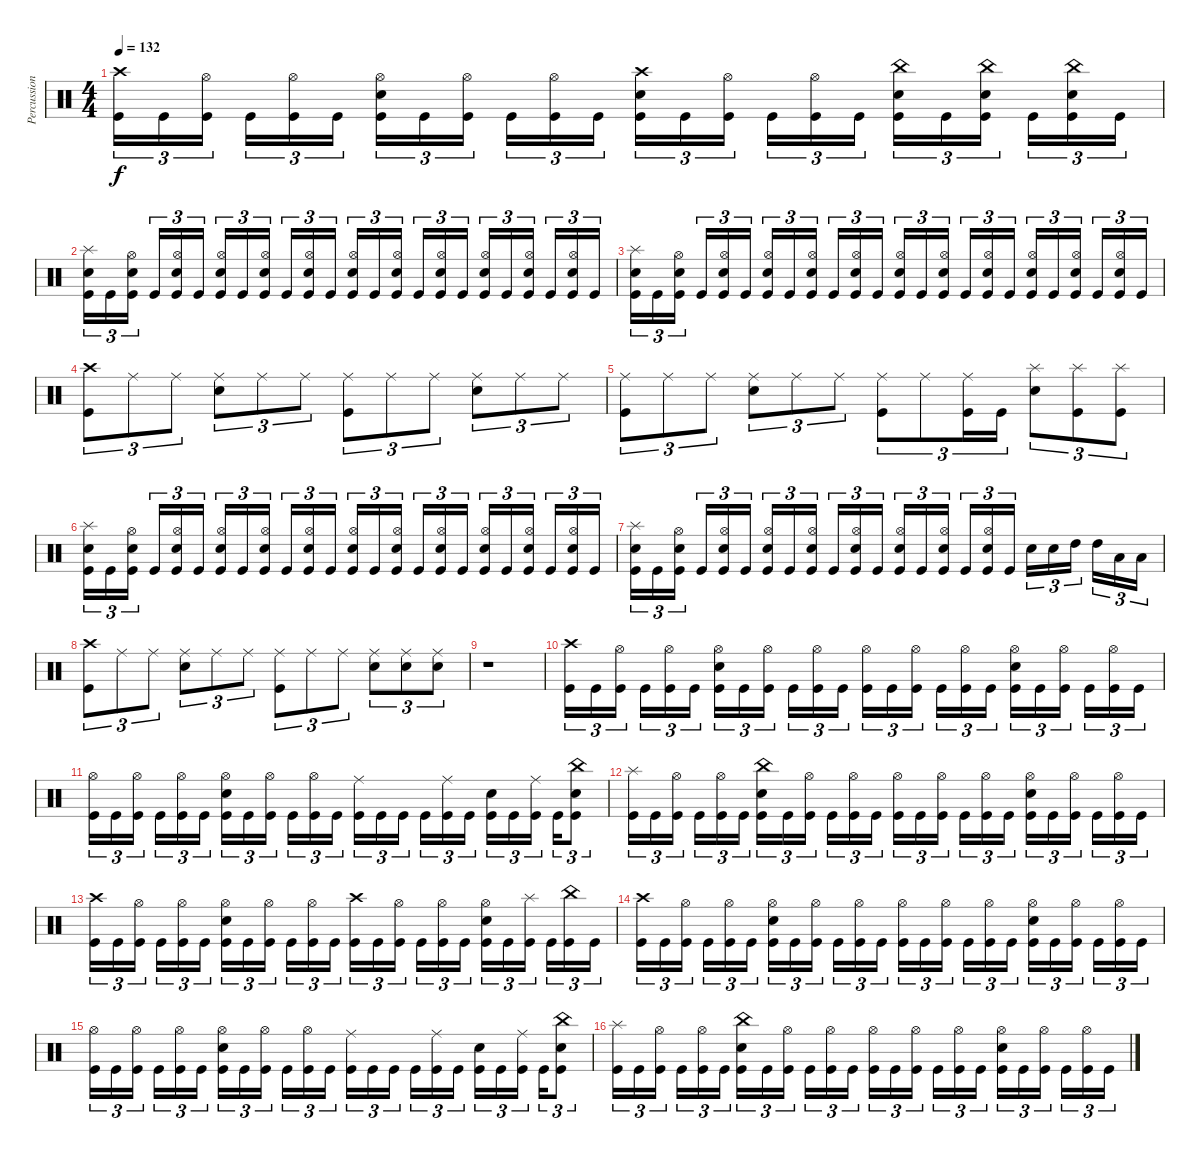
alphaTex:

\track ("Percussion" "Percussion") {instrument percussion}
\staff {score}
\articulation defaults
\ts (4 4)
\tempo 132
\clef neutral
\ks c
("Kick (hit)" "Crash high (hit)").16{tu (3 2) dy f} "Kick (hit)".16{tu (3 2)} ("Kick (hit)" "Hi-Hat (open)").16{tu (3 2) beam splitsecondary} "Kick (hit)".16{tu (3 2)} ("Kick (hit)" "Hi-Hat (open)").16{tu (3 2)} "Kick (hit)".16{tu (3 2)} ("Electric Snare (hit)" "Kick (hit)" "Hi-Hat (open)").16{tu (3 2)} "Kick (hit)".16{tu (3 2)} ("Hi-Hat (open)" "Kick (hit)").16{tu (3 2) beam splitsecondary} "Kick (hit)".16{tu (3 2)} ("Kick (hit)" "Hi-Hat (open)").16{tu (3 2)} "Kick (hit)".16{tu (3 2)} ("Electric Snare (hit)" "Crash high (hit)" "Kick (hit)").16{tu (3 2)} "Kick (hit)".16{tu (3 2)} ("Kick (hit)" "Hi-Hat (open)").16{tu (3 2) beam splitsecondary} "Kick (hit)".16{tu (3 2)} ("Kick (hit)" "Hi-Hat (open)").16{tu (3 2)} "Kick (hit)".16{tu (3 2)} ("Electric Snare (hit)" "Kick (hit)" "China (hit)").16{tu (3 2)} "Kick (hit)".16{tu (3 2)} ("Electric Snare (hit)" "Kick (hit)" "China (hit)").16{tu (3 2) beam splitsecondary} "Kick (hit)".16{tu (3 2)} ("Electric Snare (hit)" "Kick (hit)" "China (hit)").16{tu (3 2)} "Kick (hit)".16{tu (3 2)} |
("Electric Snare (hit)" "Kick (hit)" "Splash (hit)").16{tu (3 2)} "Kick (hit)".16{tu (3 2)} ("Electric Snare (hit)" "Kick (hit)" "Hi-Hat (open)").16{tu (3 2) beam splitsecondary} "Kick (hit)".16{tu (3 2)} ("Electric Snare (hit)" "Kick (hit)" "Hi-Hat (open)").16{tu (3 2)} "Kick (hit)".16{tu (3 2)} ("Electric Snare (hit)" "Kick (hit)" "Hi-Hat (open)").16{tu (3 2)} "Kick (hit)".16{tu (3 2)} ("Electric Snare (hit)" "Kick (hit)" "Hi-Hat (open)").16{tu (3 2) beam splitsecondary} "Kick (hit)".16{tu (3 2)} ("Electric Snare (hit)" "Kick (hit)" "Hi-Hat (open)").16{tu (3 2)} "Kick (hit)".16{tu (3 2)} ("Electric Snare (hit)" "Kick (hit)" "Hi-Hat (open)").16{tu (3 2)} "Kick (hit)".16{tu (3 2)} ("Electric Snare (hit)" "Kick (hit)" "Hi-Hat (open)").16{tu (3 2) beam splitsecondary} "Kick (hit)".16{tu (3 2)} ("Electric Snare (hit)" "Kick (hit)" "Hi-Hat (open)").16{tu (3 2)} "Kick (hit)".16{tu (3 2)} ("Electric Snare (hit)" "Kick (hit)" "Hi-Hat (open)").16{tu (3 2)} "Kick (hit)".16{tu (3 2)} ("Electric Snare (hit)" "Kick (hit)" "Hi-Hat (open)").16{tu (3 2) beam splitsecondary} "Kick (hit)".16{tu (3 2)} ("Electric Snare (hit)" "Kick (hit)" "Hi-Hat (open)").16{tu (3 2)} "Kick (hit)".16{tu (3 2)} |
("Electric Snare (hit)" "Kick (hit)" "Splash (hit)").16{tu (3 2)} "Kick (hit)".16{tu (3 2)} ("Electric Snare (hit)" "Kick (hit)" "Hi-Hat (open)").16{tu (3 2) beam splitsecondary} "Kick (hit)".16{tu (3 2)} ("Electric Snare (hit)" "Kick (hit)" "Hi-Hat (open)").16{tu (3 2)} "Kick (hit)".16{tu (3 2)} ("Electric Snare (hit)" "Kick (hit)" "Hi-Hat (open)").16{tu (3 2)} "Kick (hit)".16{tu (3 2)} ("Electric Snare (hit)" "Kick (hit)" "Hi-Hat (open)").16{tu (3 2) beam splitsecondary} "Kick (hit)".16{tu (3 2)} ("Electric Snare (hit)" "Kick (hit)" "Hi-Hat (open)").16{tu (3 2)} "Kick (hit)".16{tu (3 2)} ("Electric Snare (hit)" "Kick (hit)" "Hi-Hat (open)").16{tu (3 2)} "Kick (hit)".16{tu (3 2)} ("Electric Snare (hit)" "Kick (hit)" "Hi-Hat (open)").16{tu (3 2) beam splitsecondary} "Kick (hit)".16{tu (3 2)} ("Electric Snare (hit)" "Kick (hit)" "Hi-Hat (open)").16{tu (3 2)} "Kick (hit)".16{tu (3 2)} ("Electric Snare (hit)" "Kick (hit)" "Hi-Hat (open)").16{tu (3 2)} "Kick (hit)".16{tu (3 2)} ("Electric Snare (hit)" "Kick (hit)" "Hi-Hat (open)").16{tu (3 2) beam splitsecondary} "Kick (hit)".16{tu (3 2)} ("Electric Snare (hit)" "Kick (hit)" "Hi-Hat (open)").16{tu (3 2)} "Kick (hit)".16{tu (3 2)} |
("Kick (hit)" "Crash high (hit)").8{tu (3 2)} "Ride (middle)".8{tu (3 2)} "Ride (middle)".8{tu (3 2)} ("Electric Snare (hit)" "Ride (middle)").8{tu (3 2)} "Ride (middle)".8{tu (3 2)} "Ride (middle)".8{tu (3 2)} ("Kick (hit)" "Ride (middle)").8{tu (3 2)} "Ride (middle)".8{tu (3 2)} "Ride (middle)".8{tu (3 2)} ("Electric Snare (hit)" "Ride (middle)").8{tu (3 2)} "Ride (middle)".8{tu (3 2)} "Ride (middle)".8{tu (3 2)} |
("Kick (hit)" "Ride (middle)").8{tu (3 2)} "Ride (middle)".8{tu (3 2)} "Ride (middle)".8{tu (3 2)} ("Electric Snare (hit)" "Ride (middle)").8{tu (3 2)} "Ride (middle)".8{tu (3 2)} "Ride (middle)".8{tu (3 2)} ("Kick (hit)" "Ride (middle)").8{tu (3 2)} "Ride (middle)".8{tu (3 2)} ("Kick (hit)" "Ride (middle)").16{tu (3 2)} "Kick (hit)".16{tu (3 2)} ("Electric Snare (hit)" "Splash (hit)").8{tu (3 2)} ("Kick (hit)" "Splash (hit)").8{tu (3 2)} ("Kick (hit)" "Splash (hit)").8{tu (3 2)} |
("Electric Snare (hit)" "Kick (hit)" "Splash (hit)").16{tu (3 2)} "Kick (hit)".16{tu (3 2)} ("Electric Snare (hit)" "Kick (hit)" "Hi-Hat (open)").16{tu (3 2) beam splitsecondary} "Kick (hit)".16{tu (3 2)} ("Electric Snare (hit)" "Kick (hit)" "Hi-Hat (open)").16{tu (3 2)} "Kick (hit)".16{tu (3 2)} ("Electric Snare (hit)" "Kick (hit)" "Hi-Hat (open)").16{tu (3 2)} "Kick (hit)".16{tu (3 2)} ("Electric Snare (hit)" "Kick (hit)" "Hi-Hat (open)").16{tu (3 2) beam splitsecondary} "Kick (hit)".16{tu (3 2)} ("Electric Snare (hit)" "Kick (hit)" "Hi-Hat (open)").16{tu (3 2)} "Kick (hit)".16{tu (3 2)} ("Electric Snare (hit)" "Kick (hit)" "Hi-Hat (open)").16{tu (3 2)} "Kick (hit)".16{tu (3 2)} ("Electric Snare (hit)" "Kick (hit)" "Hi-Hat (open)").16{tu (3 2) beam splitsecondary} "Kick (hit)".16{tu (3 2)} ("Electric Snare (hit)" "Kick (hit)" "Hi-Hat (open)").16{tu (3 2)} "Kick (hit)".16{tu (3 2)} ("Electric Snare (hit)" "Kick (hit)" "Hi-Hat (open)").16{tu (3 2)} "Kick (hit)".16{tu (3 2)} ("Electric Snare (hit)" "Kick (hit)" "Hi-Hat (open)").16{tu (3 2) beam splitsecondary} "Kick (hit)".16{tu (3 2)} ("Electric Snare (hit)" "Kick (hit)" "Hi-Hat (open)").16{tu (3 2)} "Kick (hit)".16{tu (3 2)} |
("Electric Snare (hit)" "Kick (hit)" "Splash (hit)").16{tu (3 2)} "Kick (hit)".16{tu (3 2)} ("Electric Snare (hit)" "Kick (hit)" "Hi-Hat (open)").16{tu (3 2) beam splitsecondary} "Kick (hit)".16{tu (3 2)} ("Electric Snare (hit)" "Kick (hit)" "Hi-Hat (open)").16{tu (3 2)} "Kick (hit)".16{tu (3 2)} ("Electric Snare (hit)" "Kick (hit)" "Hi-Hat (open)").16{tu (3 2)} "Kick (hit)".16{tu (3 2)} ("Electric Snare (hit)" "Kick (hit)" "Hi-Hat (open)").16{tu (3 2) beam splitsecondary} "Kick (hit)".16{tu (3 2)} ("Electric Snare (hit)" "Kick (hit)" "Hi-Hat (open)").16{tu (3 2)} "Kick (hit)".16{tu (3 2)} ("Electric Snare (hit)" "Kick (hit)" "Hi-Hat (open)").16{tu (3 2)} "Kick (hit)".16{tu (3 2)} ("Electric Snare (hit)" "Kick (hit)" "Hi-Hat (open)").16{tu (3 2) beam splitsecondary} "Kick (hit)".16{tu (3 2)} ("Electric Snare (hit)" "Kick (hit)" "Hi-Hat (open)").16{tu (3 2)} "Kick (hit)".16{tu (3 2)} "Electric Snare (hit)".16{tu (3 2)} "Electric Snare (hit)".16{tu (3 2)} "High Tom (hit)".16{tu (3 2) beam splitsecondary} "High Tom (hit)".16{tu (3 2)} "Low Tom (hit)".16{tu (3 2)} "Low Tom (hit)".16{tu (3 2)} |
("Kick (hit)" "Crash high (hit)").8{tu (3 2)} "Ride (middle)".8{tu (3 2)} "Ride (middle)".8{tu (3 2)} ("Electric Snare (hit)" "Ride (middle)").8{tu (3 2)} "Ride (middle)".8{tu (3 2)} "Ride (middle)".8{tu (3 2)} ("Kick (hit)" "Ride (middle)").8{tu (3 2)} "Ride (middle)".8{tu (3 2)} "Ride (middle)".8{tu (3 2)} ("Electric Snare (hit)" "Ride (middle)").8{tu (3 2)} ("Electric Snare (hit)" "Ride (middle)").8{tu (3 2)} ("Electric Snare (hit)" "Ride (middle)").8{tu (3 2)} |
r.1 |
("Kick (hit)" "Crash high (hit)").16{tu (3 2)} "Kick (hit)".16{tu (3 2)} ("Kick (hit)" "Hi-Hat (open)").16{tu (3 2) beam splitsecondary} "Kick (hit)".16{tu (3 2)} ("Kick (hit)" "Hi-Hat (open)").16{tu (3 2)} "Kick (hit)".16{tu (3 2)} ("Electric Snare (hit)" "Kick (hit)" "Hi-Hat (open)").16{tu (3 2)} "Kick (hit)".16{tu (3 2)} ("Hi-Hat (open)" "Kick (hit)").16{tu (3 2) beam splitsecondary} "Kick (hit)".16{tu (3 2)} ("Kick (hit)" "Hi-Hat (open)").16{tu (3 2)} "Kick (hit)".16{tu (3 2)} ("Hi-Hat (open)" "Kick (hit)").16{tu (3 2)} "Kick (hit)".16{tu (3 2)} ("Kick (hit)" "Hi-Hat (open)").16{tu (3 2) beam splitsecondary} "Kick (hit)".16{tu (3 2)} ("Kick (hit)" "Hi-Hat (open)").16{tu (3 2)} "Kick (hit)".16{tu (3 2)} ("Electric Snare (hit)" "Kick (hit)" "Hi-Hat (open)").16{tu (3 2)} "Kick (hit)".16{tu (3 2)} ("Kick (hit)" "Hi-Hat (open)").16{tu (3 2) beam splitsecondary} "Kick (hit)".16{tu (3 2)} ("Kick (hit)" "Hi-Hat (open)").16{tu (3 2)} "Kick (hit)".16{tu (3 2)} |
("Kick (hit)" "Hi-Hat (open)").16{tu (3 2)} "Kick (hit)".16{tu (3 2)} ("Kick (hit)" "Hi-Hat (open)").16{tu (3 2) beam splitsecondary} "Kick (hit)".16{tu (3 2)} ("Kick (hit)" "Hi-Hat (open)").16{tu (3 2)} "Kick (hit)".16{tu (3 2)} ("Electric Snare (hit)" "Kick (hit)" "Hi-Hat (open)").16{tu (3 2)} "Kick (hit)".16{tu (3 2)} ("Hi-Hat (open)" "Kick (hit)").16{tu (3 2) beam splitsecondary} "Kick (hit)".16{tu (3 2)} ("Kick (hit)" "Hi-Hat (open)").16{tu (3 2)} "Kick (hit)".16{tu (3 2)} ("Ride (middle)" "Kick (hit)").16{tu (3 2)} "Kick (hit)".16{tu (3 2)} "Kick (hit)".16{tu (3 2) beam splitsecondary} "Kick (hit)".16{tu (3 2)} ("Ride (middle)" "Kick (hit)").16{tu (3 2)} "Kick (hit)".16{tu (3 2)} ("Electric Snare (hit)" "Kick (hit)").16{tu (3 2)} "Kick (hit)".16{tu (3 2)} ("Ride (middle)" "Kick (hit)").16{tu (3 2) beam splitsecondary} "Kick (hit)".16{tu (3 2)} ("Electric Snare (hit)" "China (hit)" "Kick (hit)").8{tu (3 2)} |
("Kick (hit)" "Splash (hit)").16{tu (3 2)} "Kick (hit)".16{tu (3 2)} ("Kick (hit)" "Hi-Hat (open)").16{tu (3 2) beam splitsecondary} "Kick (hit)".16{tu (3 2)} ("Kick (hit)" "Hi-Hat (open)").16{tu (3 2)} "Kick (hit)".16{tu (3 2)} ("Electric Snare (hit)" "Kick (hit)" "China (hit)").16{tu (3 2)} "Kick (hit)".16{tu (3 2)} ("Hi-Hat (open)" "Kick (hit)").16{tu (3 2) beam splitsecondary} "Kick (hit)".16{tu (3 2)} ("Kick (hit)" "Hi-Hat (open)").16{tu (3 2)} "Kick (hit)".16{tu (3 2)} ("Hi-Hat (open)" "Kick (hit)").16{tu (3 2)} "Kick (hit)".16{tu (3 2)} ("Kick (hit)" "Hi-Hat (open)").16{tu (3 2) beam splitsecondary} "Kick (hit)".16{tu (3 2)} ("Kick (hit)" "Hi-Hat (open)").16{tu (3 2)} "Kick (hit)".16{tu (3 2)} ("Electric Snare (hit)" "Kick (hit)" "Hi-Hat (open)").16{tu (3 2)} "Kick (hit)".16{tu (3 2)} ("Kick (hit)" "Hi-Hat (open)").16{tu (3 2) beam splitsecondary} "Kick (hit)".16{tu (3 2)} ("Kick (hit)" "Hi-Hat (open)").16{tu (3 2)} "Kick (hit)".16{tu (3 2)} |
("Kick (hit)" "Crash high (hit)").16{tu (3 2)} "Kick (hit)".16{tu (3 2)} ("Kick (hit)" "Hi-Hat (open)").16{tu (3 2) beam splitsecondary} "Kick (hit)".16{tu (3 2)} ("Kick (hit)" "Hi-Hat (open)").16{tu (3 2)} "Kick (hit)".16{tu (3 2)} ("Electric Snare (hit)" "Kick (hit)" "Hi-Hat (open)").16{tu (3 2)} "Kick (hit)".16{tu (3 2)} ("Hi-Hat (open)" "Kick (hit)").16{tu (3 2) beam splitsecondary} "Kick (hit)".16{tu (3 2)} ("Kick (hit)" "Hi-Hat (open)").16{tu (3 2)} "Kick (hit)".16{tu (3 2)} ("Crash high (hit)" "Kick (hit)").16{tu (3 2)} "Kick (hit)".16{tu (3 2)} ("Kick (hit)" "Hi-Hat (open)").16{tu (3 2) beam splitsecondary} "Kick (hit)".16{tu (3 2)} ("Kick (hit)" "Hi-Hat (open)").16{tu (3 2)} "Kick (hit)".16{tu (3 2)} ("Electric Snare (hit)" "Kick (hit)" "Hi-Hat (open)").16{tu (3 2)} "Kick (hit)".16{tu (3 2)} ("Kick (hit)" "Splash (hit)").16{tu (3 2) beam splitsecondary} "Kick (hit)".16{tu (3 2)} ("Kick (hit)" "China (hit)").16{tu (3 2)} "Kick (hit)".16{tu (3 2)} |
("Kick (hit)" "Crash high (hit)").16{tu (3 2)} "Kick (hit)".16{tu (3 2)} ("Kick (hit)" "Hi-Hat (open)").16{tu (3 2) beam splitsecondary} "Kick (hit)".16{tu (3 2)} ("Kick (hit)" "Hi-Hat (open)").16{tu (3 2)} "Kick (hit)".16{tu (3 2)} ("Electric Snare (hit)" "Kick (hit)" "Hi-Hat (open)").16{tu (3 2)} "Kick (hit)".16{tu (3 2)} ("Hi-Hat (open)" "Kick (hit)").16{tu (3 2) beam splitsecondary} "Kick (hit)".16{tu (3 2)} ("Kick (hit)" "Hi-Hat (open)").16{tu (3 2)} "Kick (hit)".16{tu (3 2)} ("Hi-Hat (open)" "Kick (hit)").16{tu (3 2)} "Kick (hit)".16{tu (3 2)} ("Kick (hit)" "Hi-Hat (open)").16{tu (3 2) beam splitsecondary} "Kick (hit)".16{tu (3 2)} ("Kick (hit)" "Hi-Hat (open)").16{tu (3 2)} "Kick (hit)".16{tu (3 2)} ("Electric Snare (hit)" "Kick (hit)" "Hi-Hat (open)").16{tu (3 2)} "Kick (hit)".16{tu (3 2)} ("Kick (hit)" "Hi-Hat (open)").16{tu (3 2) beam splitsecondary} "Kick (hit)".16{tu (3 2)} ("Kick (hit)" "Hi-Hat (open)").16{tu (3 2)} "Kick (hit)".16{tu (3 2)} |
("Kick (hit)" "Hi-Hat (open)").16{tu (3 2)} "Kick (hit)".16{tu (3 2)} ("Kick (hit)" "Hi-Hat (open)").16{tu (3 2) beam splitsecondary} "Kick (hit)".16{tu (3 2)} ("Kick (hit)" "Hi-Hat (open)").16{tu (3 2)} "Kick (hit)".16{tu (3 2)} ("Electric Snare (hit)" "Kick (hit)" "Hi-Hat (open)").16{tu (3 2)} "Kick (hit)".16{tu (3 2)} ("Hi-Hat (open)" "Kick (hit)").16{tu (3 2) beam splitsecondary} "Kick (hit)".16{tu (3 2)} ("Kick (hit)" "Hi-Hat (open)").16{tu (3 2)} "Kick (hit)".16{tu (3 2)} ("Ride (middle)" "Kick (hit)").16{tu (3 2)} "Kick (hit)".16{tu (3 2)} "Kick (hit)".16{tu (3 2) beam splitsecondary} "Kick (hit)".16{tu (3 2)} ("Ride (middle)" "Kick (hit)").16{tu (3 2)} "Kick (hit)".16{tu (3 2)} ("Electric Snare (hit)" "Kick (hit)").16{tu (3 2)} "Kick (hit)".16{tu (3 2)} ("Ride (middle)" "Kick (hit)").16{tu (3 2) beam splitsecondary} "Kick (hit)".16{tu (3 2)} ("Electric Snare (hit)" "China (hit)" "Kick (hit)").8{tu (3 2)} |
("Kick (hit)" "Splash (hit)").16{tu (3 2)} "Kick (hit)".16{tu (3 2)} ("Kick (hit)" "Hi-Hat (open)").16{tu (3 2) beam splitsecondary} "Kick (hit)".16{tu (3 2)} ("Kick (hit)" "Hi-Hat (open)").16{tu (3 2)} "Kick (hit)".16{tu (3 2)} ("Electric Snare (hit)" "Kick (hit)" "China (hit)").16{tu (3 2)} "Kick (hit)".16{tu (3 2)} ("Hi-Hat (open)" "Kick (hit)").16{tu (3 2) beam splitsecondary} "Kick (hit)".16{tu (3 2)} ("Kick (hit)" "Hi-Hat (open)").16{tu (3 2)} "Kick (hit)".16{tu (3 2)} ("Hi-Hat (open)" "Kick (hit)").16{tu (3 2)} "Kick (hit)".16{tu (3 2)} ("Kick (hit)" "Hi-Hat (open)").16{tu (3 2) beam splitsecondary} "Kick (hit)".16{tu (3 2)} ("Kick (hit)" "Hi-Hat (open)").16{tu (3 2)} "Kick (hit)".16{tu (3 2)} ("Electric Snare (hit)" "Kick (hit)" "Hi-Hat (open)").16{tu (3 2)} "Kick (hit)".16{tu (3 2)} ("Kick (hit)" "Hi-Hat (open)").16{tu (3 2) beam splitsecondary} "Kick (hit)".16{tu (3 2)} ("Kick (hit)" "Hi-Hat (open)").16{tu (3 2)} "Kick (hit)".16{tu (3 2)}
